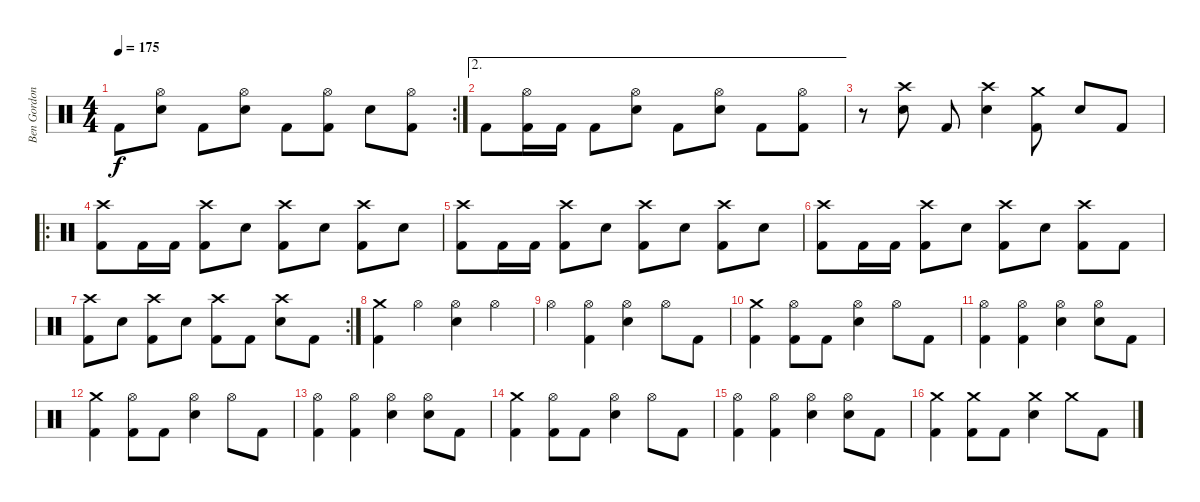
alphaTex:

\track ("Ben Gordon" "Ben Gordon") {instrument percussion}
\staff {score}
\articulation defaults
\rc 2
\ts (4 4)
\tempo 175
\clef neutral
\ks c "Kick (hit) 2".8{dy f}
("Hi-Hat (open)" "Snare (hit) 2").8 "Kick (hit) 2".8 ("Hi-Hat (open)" "Snare (hit) 2").8 "Kick (hit) 2".8 ("Hi-Hat (open)" "Kick (hit) 2").8 "Snare (hit) 2".8 ("Hi-Hat (open)" "Kick (hit) 2").8 |
\ae 2 "Kick (hit) 2".8
("Hi-Hat (open)" "Kick (hit) 2").16 "Kick (hit) 2".16 "Kick (hit) 2".8 ("Hi-Hat (open)" "Snare (hit) 2").8 "Kick (hit) 2".8 ("Hi-Hat (open)" "Snare (hit) 2").8 "Kick (hit) 2".8 ("Hi-Hat (open)" "Kick (hit) 2").8 |
r.8 ("Crash high (hit)" "Snare (hit) 2").8 "Kick (hit) 2".8 ("Crash high (hit)" "Snare (hit) 2").4 ("Crash medium (hit)" "Kick (hit) 2").8 "Snare (hit) 2".8 "Kick (hit) 2".8 |
\ro
("Crash high (hit)" "Kick (hit) 2").8 "Kick (hit) 2".16 "Kick (hit) 2".16 ("Crash high (hit)" "Kick (hit) 2").8 "Snare (hit) 2".8 ("Crash high (hit)" "Kick (hit) 2").8 "Snare (hit) 2".8 ("Crash high (hit)" "Kick (hit) 2").8 "Snare (hit) 2".8 |
("Crash high (hit)" "Kick (hit) 2").8 "Kick (hit) 2".16 "Kick (hit) 2".16 ("Crash high (hit)" "Kick (hit) 2").8 "Snare (hit) 2".8 ("Crash high (hit)" "Kick (hit) 2").8 "Snare (hit) 2".8 ("Crash high (hit)" "Kick (hit) 2").8 "Snare (hit) 2".8 |
("Crash high (hit)" "Kick (hit) 2").8 "Kick (hit) 2".16 "Kick (hit) 2".16 ("Crash high (hit)" "Kick (hit) 2").8 "Snare (hit) 2".8 ("Crash high (hit)" "Kick (hit) 2").8 "Snare (hit) 2".8 ("Crash high (hit)" "Kick (hit) 2").8 "Kick (hit) 2".8 |
\rc 2
("Crash high (hit)" "Kick (hit) 2").8 "Snare (hit) 2".8 ("Crash high (hit)" "Kick (hit) 2").8 "Snare (hit) 2".8 ("Crash high (hit)" "Kick (hit) 2").8 "Kick (hit) 2".8 ("Crash high (hit)" "Snare (hit) 2").8 "Kick (hit) 2".8 |
("Crash medium (hit)" "Kick (hit) 2").4 "Hi-Hat (open)".4 ("Hi-Hat (open)" "Snare (hit) 2").4 "Hi-Hat (open)".4 |
"Hi-Hat (open)".4 ("Hi-Hat (open)" "Kick (hit) 2").4 ("Hi-Hat (open)" "Snare (hit) 2").4 "Hi-Hat (open)".8 "Kick (hit) 2".8 |
("Crash medium (hit)" "Kick (hit) 2").4 ("Hi-Hat (open)" "Kick (hit) 2").8 "Kick (hit) 2".8 ("Hi-Hat (open)" "Snare (hit) 2").4 "Hi-Hat (open)".8 "Kick (hit) 2".8 |
("Hi-Hat (open)" "Kick (hit) 2").4 ("Hi-Hat (open)" "Kick (hit) 2").4 ("Hi-Hat (open)" "Snare (hit) 2").4 ("Hi-Hat (open)" "Snare (hit) 2").8 "Kick (hit) 2".8 |
("Crash medium (hit)" "Kick (hit) 2").4 ("Hi-Hat (open)" "Kick (hit) 2").8 "Kick (hit) 2".8 ("Hi-Hat (open)" "Snare (hit) 2").4 "Hi-Hat (open)".8 "Kick (hit) 2".8 |
("Hi-Hat (open)" "Kick (hit) 2").4 ("Hi-Hat (open)" "Kick (hit) 2").4 ("Hi-Hat (open)" "Snare (hit) 2").4 ("Hi-Hat (open)" "Snare (hit) 2").8 "Kick (hit) 2".8 |
("Crash medium (hit)" "Kick (hit) 2").4 ("Hi-Hat (open)" "Kick (hit) 2").8 "Kick (hit) 2".8 ("Hi-Hat (open)" "Snare (hit) 2").4 "Hi-Hat (open)".8 "Kick (hit) 2".8 |
("Hi-Hat (open)" "Kick (hit) 2").4 ("Hi-Hat (open)" "Kick (hit) 2").4 ("Hi-Hat (open)" "Snare (hit) 2").4 ("Hi-Hat (open)" "Snare (hit) 2").8 "Kick (hit) 2".8 |
("Crash medium (hit)" "Kick (hit) 2").4 ("Crash medium (hit)" "Kick (hit) 2").8 "Kick (hit) 2".8 ("Crash medium (hit)" "Snare (hit) 2").4 "Crash medium (hit)".8 "Kick (hit) 2".8
